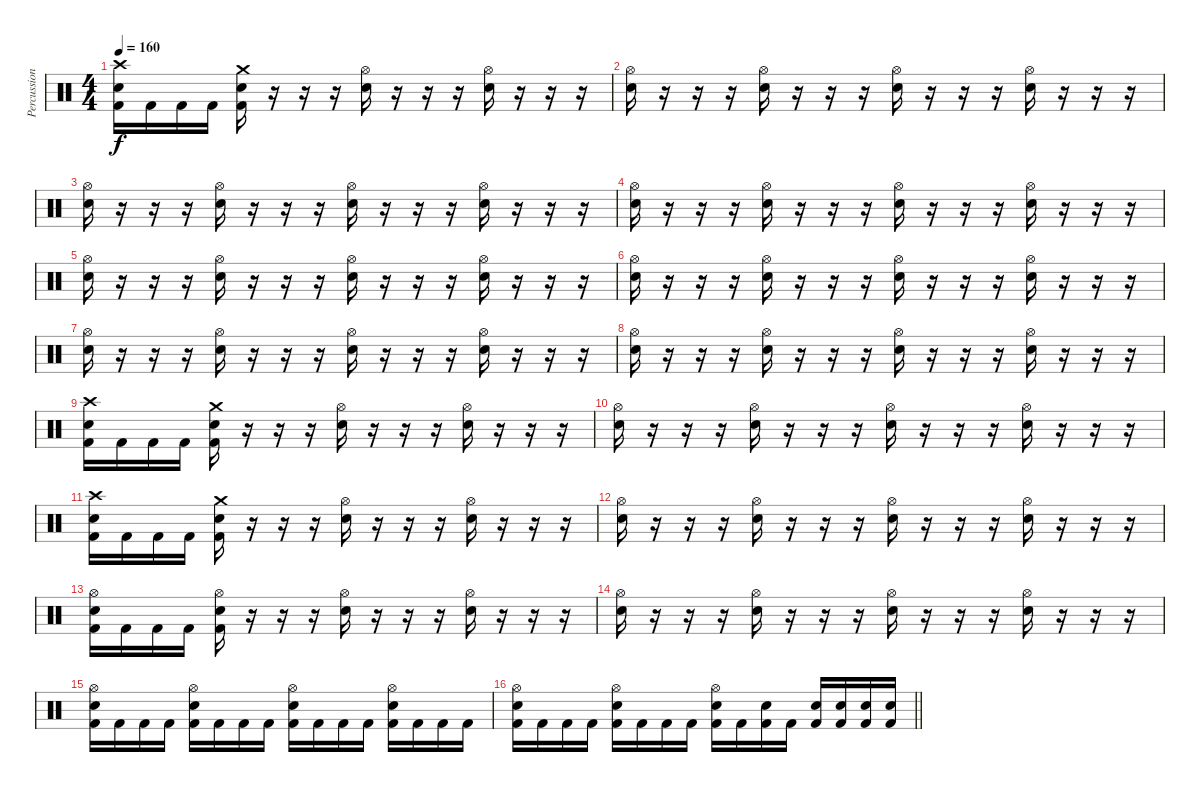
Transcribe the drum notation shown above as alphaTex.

\track ("Percussion" "Percussion") {instrument percussion}
\staff {score}
\articulation defaults
\ts (4 4)
\section ("" "")
\tempo 160
\clef neutral
\ks c
("Crash high (hit)" "Snare (hit) 2" "Kick (hit) 2").16{dy f} "Kick (hit) 2".16 "Kick (hit) 2".16 "Kick (hit) 2".16 ("Crash medium (hit)" "Snare (hit) 2" "Kick (hit) 2").16 r.16 r.16 r.16 ("Hi-Hat (open)" "Snare (hit) 2").16 r.16 r.16 r.16 ("Hi-Hat (open)" "Snare (hit) 2").16 r.16 r.16 r.16 |
("Hi-Hat (open)" "Snare (hit) 2").16 r.16 r.16 r.16 ("Hi-Hat (open)" "Snare (hit) 2").16 r.16 r.16 r.16 ("Hi-Hat (open)" "Snare (hit) 2").16 r.16 r.16 r.16 ("Hi-Hat (open)" "Snare (hit) 2").16 r.16 r.16 r.16 |
("Hi-Hat (open)" "Snare (hit) 2").16 r.16 r.16 r.16 ("Hi-Hat (open)" "Snare (hit) 2").16 r.16 r.16 r.16 ("Hi-Hat (open)" "Snare (hit) 2").16 r.16 r.16 r.16 ("Hi-Hat (open)" "Snare (hit) 2").16 r.16 r.16 r.16 |
("Hi-Hat (open)" "Snare (hit) 2").16 r.16 r.16 r.16 ("Hi-Hat (open)" "Snare (hit) 2").16 r.16 r.16 r.16 ("Hi-Hat (open)" "Snare (hit) 2").16 r.16 r.16 r.16 ("Hi-Hat (open)" "Snare (hit) 2").16 r.16 r.16 r.16 |
("Hi-Hat (open)" "Snare (hit) 2").16 r.16 r.16 r.16 ("Hi-Hat (open)" "Snare (hit) 2").16 r.16 r.16 r.16 ("Hi-Hat (open)" "Snare (hit) 2").16 r.16 r.16 r.16 ("Hi-Hat (open)" "Snare (hit) 2").16 r.16 r.16 r.16 |
("Hi-Hat (open)" "Snare (hit) 2").16 r.16 r.16 r.16 ("Hi-Hat (open)" "Snare (hit) 2").16 r.16 r.16 r.16 ("Hi-Hat (open)" "Snare (hit) 2").16 r.16 r.16 r.16 ("Hi-Hat (open)" "Snare (hit) 2").16 r.16 r.16 r.16 |
("Hi-Hat (open)" "Snare (hit) 2").16 r.16 r.16 r.16 ("Hi-Hat (open)" "Snare (hit) 2").16 r.16 r.16 r.16 ("Hi-Hat (open)" "Snare (hit) 2").16 r.16 r.16 r.16 ("Hi-Hat (open)" "Snare (hit) 2").16 r.16 r.16 r.16 |
("Hi-Hat (open)" "Snare (hit) 2").16 r.16 r.16 r.16 ("Hi-Hat (open)" "Snare (hit) 2").16 r.16 r.16 r.16 ("Hi-Hat (open)" "Snare (hit) 2").16 r.16 r.16 r.16 ("Hi-Hat (open)" "Snare (hit) 2").16 r.16 r.16 r.16 |
("Crash high (hit)" "Snare (hit) 2" "Kick (hit) 2").16 "Kick (hit) 2".16 "Kick (hit) 2".16 "Kick (hit) 2".16 ("Crash medium (hit)" "Snare (hit) 2" "Kick (hit) 2").16 r.16 r.16 r.16 ("Hi-Hat (open)" "Snare (hit) 2").16 r.16 r.16 r.16 ("Hi-Hat (open)" "Snare (hit) 2").16 r.16 r.16 r.16 |
("Hi-Hat (open)" "Snare (hit) 2").16 r.16 r.16 r.16 ("Hi-Hat (open)" "Snare (hit) 2").16 r.16 r.16 r.16 ("Hi-Hat (open)" "Snare (hit) 2").16 r.16 r.16 r.16 ("Hi-Hat (open)" "Snare (hit) 2").16 r.16 r.16 r.16 |
("Crash high (hit)" "Snare (hit) 2" "Kick (hit) 2").16 "Kick (hit) 2".16 "Kick (hit) 2".16 "Kick (hit) 2".16 ("Crash medium (hit)" "Snare (hit) 2" "Kick (hit) 2").16 r.16 r.16 r.16 ("Hi-Hat (open)" "Snare (hit) 2").16 r.16 r.16 r.16 ("Hi-Hat (open)" "Snare (hit) 2").16 r.16 r.16 r.16 |
("Hi-Hat (open)" "Snare (hit) 2").16 r.16 r.16 r.16 ("Hi-Hat (open)" "Snare (hit) 2").16 r.16 r.16 r.16 ("Hi-Hat (open)" "Snare (hit) 2").16 r.16 r.16 r.16 ("Hi-Hat (open)" "Snare (hit) 2").16 r.16 r.16 r.16 |
("Hi-Hat (open)" "Snare (hit) 2" "Kick (hit) 2").16 "Kick (hit) 2".16 "Kick (hit) 2".16 "Kick (hit) 2".16 ("Hi-Hat (open)" "Snare (hit) 2" "Kick (hit) 2").16 r.16 r.16 r.16 ("Hi-Hat (open)" "Snare (hit) 2").16 r.16 r.16 r.16 ("Hi-Hat (open)" "Snare (hit) 2").16 r.16 r.16 r.16 |
("Hi-Hat (open)" "Snare (hit) 2").16 r.16 r.16 r.16 ("Hi-Hat (open)" "Snare (hit) 2").16 r.16 r.16 r.16 ("Hi-Hat (open)" "Snare (hit) 2").16 r.16 r.16 r.16 ("Hi-Hat (open)" "Snare (hit) 2").16 r.16 r.16 r.16 |
("Hi-Hat (open)" "Snare (hit) 2" "Kick (hit) 2").16 "Kick (hit) 2".16 "Kick (hit) 2".16 "Kick (hit) 2".16 ("Hi-Hat (open)" "Snare (hit) 2" "Kick (hit) 2").16 "Kick (hit) 2".16 "Kick (hit) 2".16 "Kick (hit) 2".16 ("Hi-Hat (open)" "Snare (hit) 2" "Kick (hit) 2").16 "Kick (hit) 2".16 "Kick (hit) 2".16 "Kick (hit) 2".16 ("Hi-Hat (open)" "Snare (hit) 2" "Kick (hit) 2").16 "Kick (hit) 2".16 "Kick (hit) 2".16 "Kick (hit) 2".16 |
\barLineRight lightlight
("Hi-Hat (open)" "Snare (hit) 2" "Kick (hit) 2").16 "Kick (hit) 2".16 "Kick (hit) 2".16 "Kick (hit) 2".16 ("Hi-Hat (open)" "Snare (hit) 2" "Kick (hit) 2").16 "Kick (hit) 2".16 "Kick (hit) 2".16 "Kick (hit) 2".16 ("Hi-Hat (open)" "Snare (hit) 2" "Kick (hit) 2").16 "Kick (hit) 2".16 ("Snare (hit) 2" "Kick (hit) 2").16 "Kick (hit) 2".16 ("Snare (hit) 2" "Kick (hit) 2").16 ("Snare (hit) 2" "Kick (hit) 2").16 ("Snare (hit) 2" "Kick (hit) 2").16 ("Snare (hit) 2" "Kick (hit) 2").16
